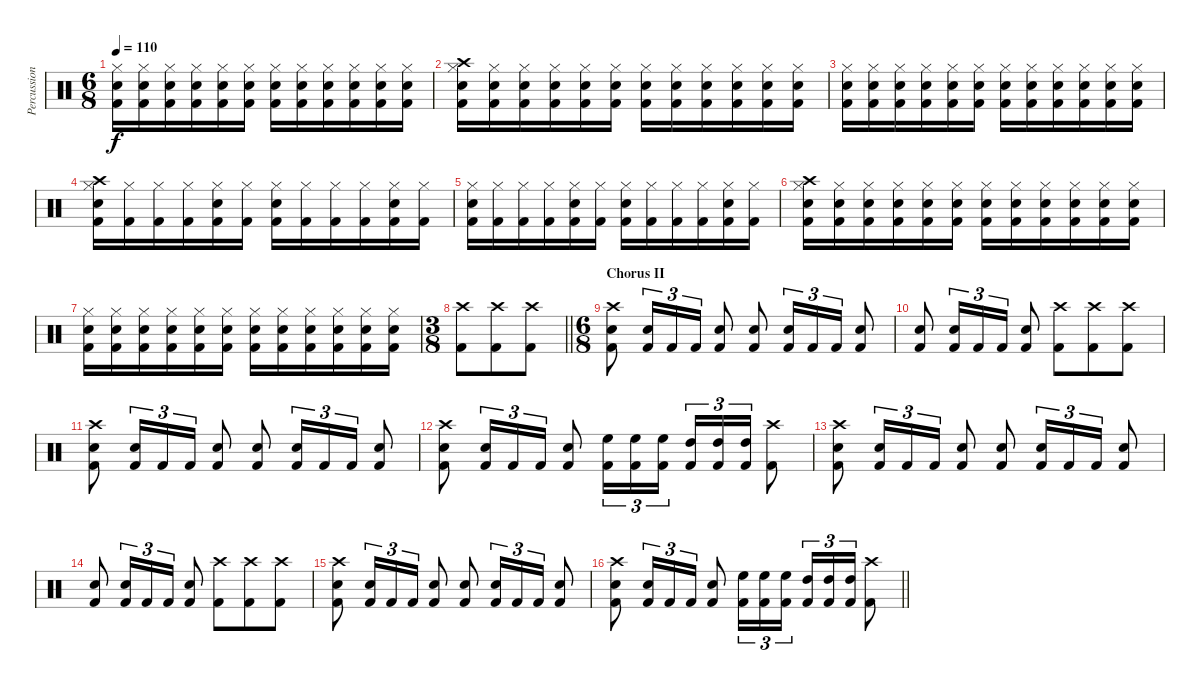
\track ("Percussion" "Percussion") {instrument percussion}
\staff {score}
\articulation defaults
\ts (6 8)
\tempo 110
\clef neutral
\ks c
("Hi-Hat (closed)" "Electric Snare (hit)" "Kick (hit) 2").16{dy f} ("Hi-Hat (closed)" "Electric Snare (hit)" "Kick (hit) 2").16 ("Hi-Hat (closed)" "Electric Snare (hit)" "Kick (hit) 2").16 ("Hi-Hat (closed)" "Electric Snare (hit)" "Kick (hit) 2").16 ("Hi-Hat (closed)" "Electric Snare (hit)" "Kick (hit) 2").16 ("Hi-Hat (closed)" "Electric Snare (hit)" "Kick (hit) 2").16 ("Hi-Hat (closed)" "Electric Snare (hit)" "Kick (hit) 2").16 ("Hi-Hat (closed)" "Electric Snare (hit)" "Kick (hit) 2").16 ("Hi-Hat (closed)" "Electric Snare (hit)" "Kick (hit) 2").16 ("Hi-Hat (closed)" "Electric Snare (hit)" "Kick (hit) 2").16 ("Hi-Hat (closed)" "Electric Snare (hit)" "Kick (hit) 2").16 ("Hi-Hat (closed)" "Electric Snare (hit)" "Kick (hit) 2").16 |
("Crash high (hit)" "Hi-Hat (closed)" "Electric Snare (hit)" "Kick (hit) 2").16 ("Hi-Hat (closed)" "Electric Snare (hit)" "Kick (hit) 2").16 ("Hi-Hat (closed)" "Electric Snare (hit)" "Kick (hit) 2").16 ("Hi-Hat (closed)" "Electric Snare (hit)" "Kick (hit) 2").16 ("Hi-Hat (closed)" "Electric Snare (hit)" "Kick (hit) 2").16 ("Hi-Hat (closed)" "Electric Snare (hit)" "Kick (hit) 2").16 ("Hi-Hat (closed)" "Electric Snare (hit)" "Kick (hit) 2").16 ("Hi-Hat (closed)" "Electric Snare (hit)" "Kick (hit) 2").16 ("Hi-Hat (closed)" "Electric Snare (hit)" "Kick (hit) 2").16 ("Hi-Hat (closed)" "Electric Snare (hit)" "Kick (hit) 2").16 ("Hi-Hat (closed)" "Electric Snare (hit)" "Kick (hit) 2").16 ("Hi-Hat (closed)" "Electric Snare (hit)" "Kick (hit) 2").16 |
("Hi-Hat (closed)" "Electric Snare (hit)" "Kick (hit) 2").16 ("Hi-Hat (closed)" "Electric Snare (hit)" "Kick (hit) 2").16 ("Hi-Hat (closed)" "Electric Snare (hit)" "Kick (hit) 2").16 ("Hi-Hat (closed)" "Electric Snare (hit)" "Kick (hit) 2").16 ("Hi-Hat (closed)" "Electric Snare (hit)" "Kick (hit) 2").16 ("Hi-Hat (closed)" "Electric Snare (hit)" "Kick (hit) 2").16 ("Hi-Hat (closed)" "Electric Snare (hit)" "Kick (hit) 2").16 ("Hi-Hat (closed)" "Electric Snare (hit)" "Kick (hit) 2").16 ("Hi-Hat (closed)" "Electric Snare (hit)" "Kick (hit) 2").16 ("Hi-Hat (closed)" "Electric Snare (hit)" "Kick (hit) 2").16 ("Hi-Hat (closed)" "Electric Snare (hit)" "Kick (hit) 2").16 ("Hi-Hat (closed)" "Electric Snare (hit)" "Kick (hit) 2").16 |
("Crash high (hit)" "Hi-Hat (closed)" "Electric Snare (hit)" "Kick (hit) 2").16 ("Hi-Hat (closed)" "Kick (hit) 2").16 ("Hi-Hat (closed)" "Kick (hit) 2").16 ("Hi-Hat (closed)" "Kick (hit) 2").16 ("Hi-Hat (closed)" "Electric Snare (hit)" "Kick (hit) 2").16 ("Hi-Hat (closed)" "Kick (hit) 2").16 ("Hi-Hat (closed)" "Electric Snare (hit)" "Kick (hit) 2").16 ("Hi-Hat (closed)" "Kick (hit) 2").16 ("Hi-Hat (closed)" "Kick (hit) 2").16 ("Hi-Hat (closed)" "Kick (hit) 2").16 ("Hi-Hat (closed)" "Electric Snare (hit)" "Kick (hit) 2").16 ("Hi-Hat (closed)" "Kick (hit) 2").16 |
("Hi-Hat (closed)" "Electric Snare (hit)" "Kick (hit) 2").16 ("Hi-Hat (closed)" "Kick (hit) 2").16 ("Hi-Hat (closed)" "Kick (hit) 2").16 ("Hi-Hat (closed)" "Kick (hit) 2").16 ("Hi-Hat (closed)" "Electric Snare (hit)" "Kick (hit) 2").16 ("Hi-Hat (closed)" "Kick (hit) 2").16 ("Hi-Hat (closed)" "Electric Snare (hit)" "Kick (hit) 2").16 ("Hi-Hat (closed)" "Kick (hit) 2").16 ("Hi-Hat (closed)" "Kick (hit) 2").16 ("Hi-Hat (closed)" "Kick (hit) 2").16 ("Hi-Hat (closed)" "Electric Snare (hit)" "Kick (hit) 2").16 ("Hi-Hat (closed)" "Kick (hit) 2").16 |
("Crash high (hit)" "Hi-Hat (closed)" "Electric Snare (hit)" "Kick (hit) 2").16 ("Hi-Hat (closed)" "Electric Snare (hit)" "Kick (hit) 2").16 ("Hi-Hat (closed)" "Electric Snare (hit)" "Kick (hit) 2").16 ("Hi-Hat (closed)" "Electric Snare (hit)" "Kick (hit) 2").16 ("Hi-Hat (closed)" "Electric Snare (hit)" "Kick (hit) 2").16 ("Hi-Hat (closed)" "Electric Snare (hit)" "Kick (hit) 2").16 ("Hi-Hat (closed)" "Electric Snare (hit)" "Kick (hit) 2").16 ("Hi-Hat (closed)" "Electric Snare (hit)" "Kick (hit) 2").16 ("Hi-Hat (closed)" "Electric Snare (hit)" "Kick (hit) 2").16 ("Hi-Hat (closed)" "Electric Snare (hit)" "Kick (hit) 2").16 ("Hi-Hat (closed)" "Electric Snare (hit)" "Kick (hit) 2").16 ("Hi-Hat (closed)" "Electric Snare (hit)" "Kick (hit) 2").16 |
("Hi-Hat (closed)" "Electric Snare (hit)" "Kick (hit) 2").16 ("Hi-Hat (closed)" "Electric Snare (hit)" "Kick (hit) 2").16 ("Hi-Hat (closed)" "Electric Snare (hit)" "Kick (hit) 2").16 ("Hi-Hat (closed)" "Electric Snare (hit)" "Kick (hit) 2").16 ("Hi-Hat (closed)" "Electric Snare (hit)" "Kick (hit) 2").16 ("Hi-Hat (closed)" "Electric Snare (hit)" "Kick (hit) 2").16 ("Hi-Hat (closed)" "Electric Snare (hit)" "Kick (hit) 2").16 ("Hi-Hat (closed)" "Electric Snare (hit)" "Kick (hit) 2").16 ("Hi-Hat (closed)" "Electric Snare (hit)" "Kick (hit) 2").16 ("Hi-Hat (closed)" "Electric Snare (hit)" "Kick (hit) 2").16 ("Hi-Hat (closed)" "Electric Snare (hit)" "Kick (hit) 2").16 ("Hi-Hat (closed)" "Electric Snare (hit)" "Kick (hit) 2").16 |
\ts (3 8)
\barLineRight lightlight
("Crash high (hit)" "Kick (hit) 2").8 ("Crash high (hit)" "Kick (hit) 2").8 ("Crash high (hit)" "Kick (hit) 2").8 |
\ts (6 8)
\section ("" "Chorus II")
("Crash high (hit)" "Electric Snare (hit)" "Kick (hit) 2").8 ("Electric Snare (hit)" "Kick (hit) 2").16{tu (3 2)} "Kick (hit) 2".16{tu (3 2)} "Kick (hit) 2".16{tu (3 2)} ("Electric Snare (hit)" "Kick (hit) 2").8 ("Electric Snare (hit)" "Kick (hit) 2").8 ("Electric Snare (hit)" "Kick (hit) 2").16{tu (3 2)} "Kick (hit) 2".16{tu (3 2)} "Kick (hit) 2".16{tu (3 2)} ("Electric Snare (hit)" "Kick (hit) 2").8 |
("Electric Snare (hit)" "Kick (hit) 2").8 ("Electric Snare (hit)" "Kick (hit) 2").16{tu (3 2)} "Kick (hit) 2".16{tu (3 2)} "Kick (hit) 2".16{tu (3 2)} ("Electric Snare (hit)" "Kick (hit) 2").8 ("Crash high (hit)" "Kick (hit) 2").8 ("Crash high (hit)" "Kick (hit) 2").8 ("Crash high (hit)" "Kick (hit) 2").8 |
("Crash high (hit)" "Electric Snare (hit)" "Kick (hit) 2").8 ("Electric Snare (hit)" "Kick (hit) 2").16{tu (3 2)} "Kick (hit) 2".16{tu (3 2)} "Kick (hit) 2".16{tu (3 2)} ("Electric Snare (hit)" "Kick (hit) 2").8 ("Electric Snare (hit)" "Kick (hit) 2").8 ("Electric Snare (hit)" "Kick (hit) 2").16{tu (3 2)} "Kick (hit) 2".16{tu (3 2)} "Kick (hit) 2".16{tu (3 2)} ("Electric Snare (hit)" "Kick (hit) 2").8 |
("Crash high (hit)" "Electric Snare (hit)" "Kick (hit) 2").8 ("Electric Snare (hit)" "Kick (hit) 2").16{tu (3 2)} "Kick (hit) 2".16{tu (3 2)} "Kick (hit) 2".16{tu (3 2)} ("Electric Snare (hit)" "Kick (hit) 2").8 ("High Floor Tom (hit)" "Kick (hit) 2").16{tu (3 2)} ("High Floor Tom (hit)" "Kick (hit) 2").16{tu (3 2)} ("High Floor Tom (hit)" "Kick (hit) 2").16{tu (3 2) beam splitsecondary} ("High Tom (hit)" "Kick (hit) 2").16{tu (3 2)} ("High Tom (hit)" "Kick (hit) 2").16{tu (3 2)} ("High Tom (hit)" "Kick (hit) 2").16{tu (3 2)} ("Crash high (hit)" "Kick (hit) 2").8 |
("Crash high (hit)" "Electric Snare (hit)" "Kick (hit) 2").8 ("Electric Snare (hit)" "Kick (hit) 2").16{tu (3 2)} "Kick (hit) 2".16{tu (3 2)} "Kick (hit) 2".16{tu (3 2)} ("Electric Snare (hit)" "Kick (hit) 2").8 ("Electric Snare (hit)" "Kick (hit) 2").8 ("Electric Snare (hit)" "Kick (hit) 2").16{tu (3 2)} "Kick (hit) 2".16{tu (3 2)} "Kick (hit) 2".16{tu (3 2)} ("Electric Snare (hit)" "Kick (hit) 2").8 |
("Electric Snare (hit)" "Kick (hit) 2").8 ("Electric Snare (hit)" "Kick (hit) 2").16{tu (3 2)} "Kick (hit) 2".16{tu (3 2)} "Kick (hit) 2".16{tu (3 2)} ("Electric Snare (hit)" "Kick (hit) 2").8 ("Crash high (hit)" "Kick (hit) 2").8 ("Crash high (hit)" "Kick (hit) 2").8 ("Crash high (hit)" "Kick (hit) 2").8 |
("Crash high (hit)" "Electric Snare (hit)" "Kick (hit) 2").8 ("Electric Snare (hit)" "Kick (hit) 2").16{tu (3 2)} "Kick (hit) 2".16{tu (3 2)} "Kick (hit) 2".16{tu (3 2)} ("Electric Snare (hit)" "Kick (hit) 2").8 ("Electric Snare (hit)" "Kick (hit) 2").8 ("Electric Snare (hit)" "Kick (hit) 2").16{tu (3 2)} "Kick (hit) 2".16{tu (3 2)} "Kick (hit) 2".16{tu (3 2)} ("Electric Snare (hit)" "Kick (hit) 2").8 |
\barLineRight lightlight
("Crash high (hit)" "Electric Snare (hit)" "Kick (hit) 2").8 ("Electric Snare (hit)" "Kick (hit) 2").16{tu (3 2)} "Kick (hit) 2".16{tu (3 2)} "Kick (hit) 2".16{tu (3 2)} ("Electric Snare (hit)" "Kick (hit) 2").8 ("High Floor Tom (hit)" "Kick (hit) 2").16{tu (3 2)} ("High Floor Tom (hit)" "Kick (hit) 2").16{tu (3 2)} ("High Floor Tom (hit)" "Kick (hit) 2").16{tu (3 2) beam splitsecondary} ("High Tom (hit)" "Kick (hit) 2").16{tu (3 2)} ("High Tom (hit)" "Kick (hit) 2").16{tu (3 2)} ("High Tom (hit)" "Kick (hit) 2").16{tu (3 2)} ("Crash high (hit)" "Kick (hit) 2").8
